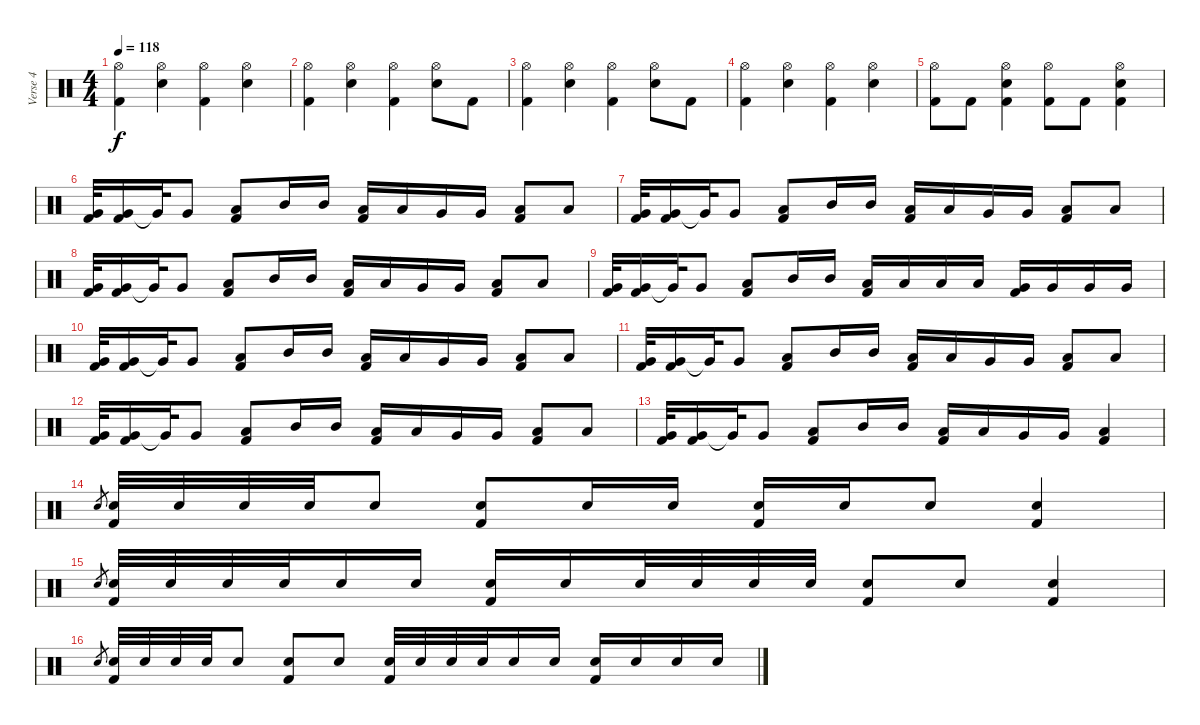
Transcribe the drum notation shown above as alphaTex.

\track ("Verse 4" "Verse 4") {instrument percussion}
\staff {score}
\articulation defaults
\ts (4 4)
\tempo 118
\clef neutral
\ks c
("Hi-Hat (open)" "Kick (hit) 2").4{dy f} ("Hi-Hat (open)" "Electric Snare (hit)").4 ("Hi-Hat (open)" "Kick (hit) 2").4 ("Hi-Hat (open)" "Electric Snare (hit)").4 |
("Hi-Hat (open)" "Kick (hit) 2").4 ("Hi-Hat (open)" "Electric Snare (hit)").4 ("Hi-Hat (open)" "Kick (hit) 2").4 ("Hi-Hat (open)" "Electric Snare (hit)").8 "Kick (hit) 2".8 |
("Hi-Hat (open)" "Kick (hit) 2").4 ("Hi-Hat (open)" "Electric Snare (hit)").4 ("Hi-Hat (open)" "Kick (hit) 2").4 ("Hi-Hat (open)" "Electric Snare (hit)").8 "Kick (hit) 2".8 |
("Hi-Hat (open)" "Kick (hit) 2").4 ("Hi-Hat (open)" "Electric Snare (hit)").4 ("Hi-Hat (open)" "Kick (hit) 2").4 ("Hi-Hat (open)" "Electric Snare (hit)").4 |
("Hi-Hat (open)" "Kick (hit) 2").8 "Kick (hit) 2".8 ("Hi-Hat (open)" "Electric Snare (hit)" "Kick (hit) 2").4 ("Hi-Hat (open)" "Kick (hit) 2").8 "Kick (hit) 2".8 ("Hi-Hat (open)" "Electric Snare (hit)" "Kick (hit) 2").4 |
("Very Low Tom (hit)" "Kick (hit) 2").32 ("Very Low Tom (hit)" "Kick (hit) 2").16 "Very Low Tom (hit)"{t}.32 "Very Low Tom (hit)".8 ("Low Tom (hit)" "Kick (hit) 2").8 "Mid Tom (hit)".16 "Mid Tom (hit)".16 ("Low Tom (hit)" "Kick (hit) 2").16 "Low Tom (hit)".16 "Very Low Tom (hit)".16 "Very Low Tom (hit)".16 ("Low Floor Tom (hit)" "Kick (hit) 2").8 "Low Floor Tom (hit)".8 |
("Very Low Tom (hit)" "Kick (hit) 2").32 ("Very Low Tom (hit)" "Kick (hit) 2").16 "Very Low Tom (hit)"{t}.32 "Very Low Tom (hit)".8 ("Low Tom (hit)" "Kick (hit) 2").8 "Mid Tom (hit)".16 "Mid Tom (hit)".16 ("Low Tom (hit)" "Kick (hit) 2").16 "Low Tom (hit)".16 "Very Low Tom (hit)".16 "Very Low Tom (hit)".16 ("Low Floor Tom (hit)" "Kick (hit) 2").8 "Low Floor Tom (hit)".8 |
("Very Low Tom (hit)" "Kick (hit) 2").32 ("Very Low Tom (hit)" "Kick (hit) 2").16 "Very Low Tom (hit)"{t}.32 "Very Low Tom (hit)".8 ("Low Tom (hit)" "Kick (hit) 2").8 "Mid Tom (hit)".16 "Mid Tom (hit)".16 ("Low Tom (hit)" "Kick (hit) 2").16 "Low Tom (hit)".16 "Very Low Tom (hit)".16 "Very Low Tom (hit)".16 ("Low Floor Tom (hit)" "Kick (hit) 2").8 "Low Floor Tom (hit)".8 |
("Very Low Tom (hit)" "Kick (hit) 2").32 ("Very Low Tom (hit)" "Kick (hit) 2").16 "Very Low Tom (hit)"{t}.32 "Very Low Tom (hit)".8 ("Low Tom (hit)" "Kick (hit) 2").8 "Mid Tom (hit)".16 "Mid Tom (hit)".16 ("Low Tom (hit)" "Kick (hit) 2").16 "Low Tom (hit)".16 "Low Tom (hit)".16 "Low Tom (hit)".16 ("Very Low Tom (hit)" "Kick (hit) 2").16 "Very Low Tom (hit)".16 "Very Low Tom (hit)".16 "Very Low Tom (hit)".16 |
("Very Low Tom (hit)" "Kick (hit) 2").32 ("Very Low Tom (hit)" "Kick (hit) 2").16 "Very Low Tom (hit)"{t}.32 "Very Low Tom (hit)".8 ("Low Tom (hit)" "Kick (hit) 2").8 "Mid Tom (hit)".16 "Mid Tom (hit)".16 ("Low Tom (hit)" "Kick (hit) 2").16 "Low Tom (hit)".16 "Very Low Tom (hit)".16 "Very Low Tom (hit)".16 ("Low Floor Tom (hit)" "Kick (hit) 2").8 "Low Floor Tom (hit)".8 |
("Very Low Tom (hit)" "Kick (hit) 2").32 ("Very Low Tom (hit)" "Kick (hit) 2").16 "Very Low Tom (hit)"{t}.32 "Very Low Tom (hit)".8 ("Low Tom (hit)" "Kick (hit) 2").8 "Mid Tom (hit)".16 "Mid Tom (hit)".16 ("Low Tom (hit)" "Kick (hit) 2").16 "Low Tom (hit)".16 "Very Low Tom (hit)".16 "Very Low Tom (hit)".16 ("Low Floor Tom (hit)" "Kick (hit) 2").8 "Low Floor Tom (hit)".8 |
("Very Low Tom (hit)" "Kick (hit) 2").32 ("Very Low Tom (hit)" "Kick (hit) 2").16 "Very Low Tom (hit)"{t}.32 "Very Low Tom (hit)".8 ("Low Tom (hit)" "Kick (hit) 2").8 "Mid Tom (hit)".16 "Mid Tom (hit)".16 ("Low Tom (hit)" "Kick (hit) 2").16 "Low Tom (hit)".16 "Very Low Tom (hit)".16 "Very Low Tom (hit)".16 ("Low Floor Tom (hit)" "Kick (hit) 2").8 "Low Floor Tom (hit)".8 |
("Very Low Tom (hit)" "Kick (hit) 2").32 ("Very Low Tom (hit)" "Kick (hit) 2").16 "Very Low Tom (hit)"{t}.32 "Very Low Tom (hit)".8 ("Low Tom (hit)" "Kick (hit) 2").8 "Mid Tom (hit)".16 "Mid Tom (hit)".16 ("Low Tom (hit)" "Kick (hit) 2").16 "Low Tom (hit)".16 "Very Low Tom (hit)".16 "Very Low Tom (hit)".16 ("Low Floor Tom (hit)" "Kick (hit) 2").4 |
"Electric Snare (hit)".8{gr} ("Electric Snare (hit)" "Kick (hit) 2").32 "Electric Snare (hit)".32 "Electric Snare (hit)".32 "Electric Snare (hit)".32 "Electric Snare (hit)".8 ("Electric Snare (hit)" "Kick (hit) 2").8 "Electric Snare (hit)".16 "Electric Snare (hit)".16 ("Electric Snare (hit)" "Kick (hit) 2").16 "Electric Snare (hit)".16 "Electric Snare (hit)".8 ("Electric Snare (hit)" "Kick (hit) 2").4 |
"Electric Snare (hit)".8{gr} ("Electric Snare (hit)" "Kick (hit) 2").32 "Electric Snare (hit)".32 "Electric Snare (hit)".32 "Electric Snare (hit)".32 "Electric Snare (hit)".16 "Electric Snare (hit)".16 ("Electric Snare (hit)" "Kick (hit) 2").16 "Electric Snare (hit)".16 "Electric Snare (hit)".32 "Electric Snare (hit)".32 "Electric Snare (hit)".32 "Electric Snare (hit)".32 ("Electric Snare (hit)" "Kick (hit) 2").8 "Electric Snare (hit)".8 ("Electric Snare (hit)" "Kick (hit) 2").4 |
"Electric Snare (hit)".8{gr} ("Electric Snare (hit)" "Kick (hit) 2").32 "Electric Snare (hit)".32 "Electric Snare (hit)".32 "Electric Snare (hit)".32 "Electric Snare (hit)".8 ("Electric Snare (hit)" "Kick (hit) 2").8 "Electric Snare (hit)".8 ("Electric Snare (hit)" "Kick (hit) 2").32 "Electric Snare (hit)".32 "Electric Snare (hit)".32 "Electric Snare (hit)".32 "Electric Snare (hit)".16 "Electric Snare (hit)".16 ("Electric Snare (hit)" "Kick (hit) 2").16 "Electric Snare (hit)".16 "Electric Snare (hit)".16 "Electric Snare (hit)".16
